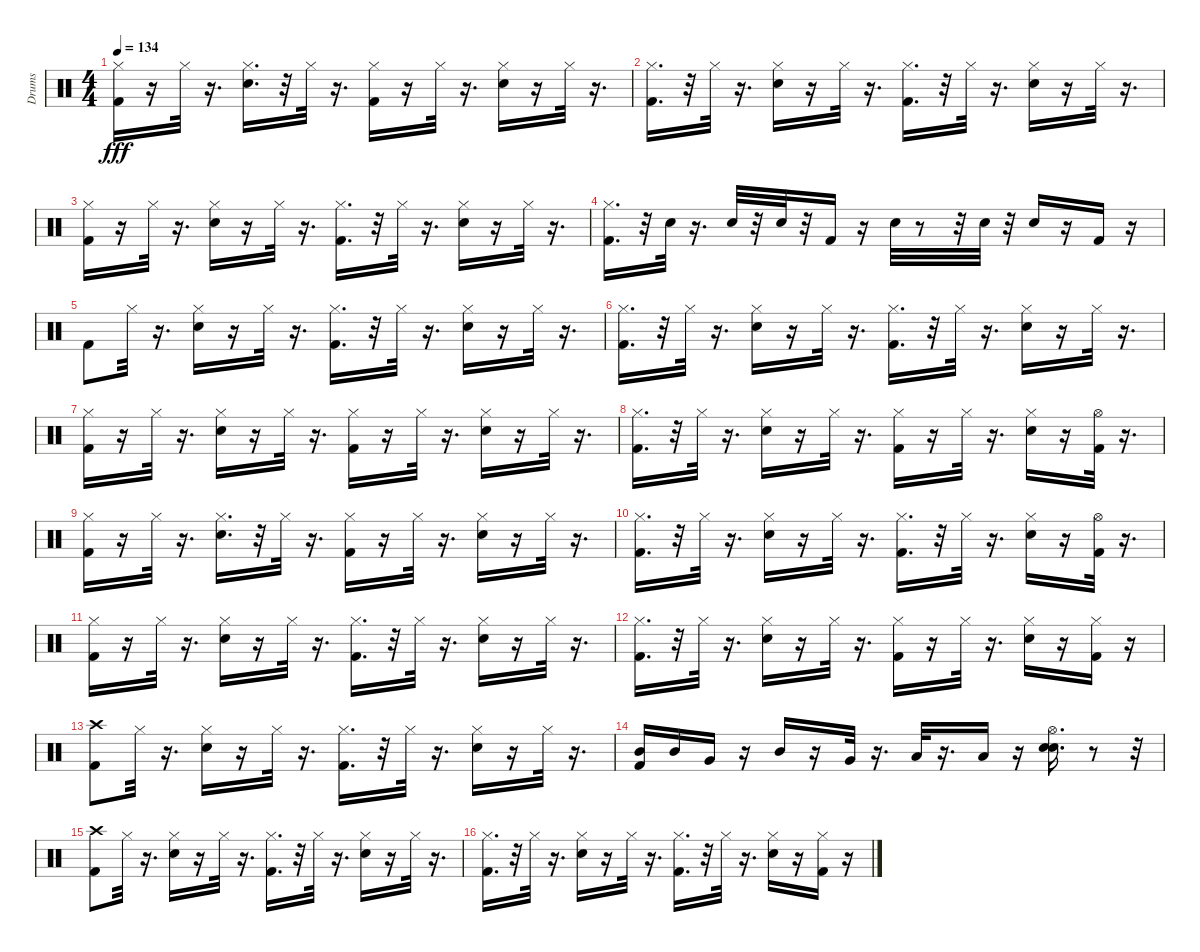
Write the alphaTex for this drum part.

\track ("Drums" "Drums") {instrument percussion}
\staff {score}
\articulation defaults
\ts (4 4)
\tempo 134
\clef neutral
\ks c
("Kick (hit) 2" "Hi-Hat (closed)").16{dy fff} r.16 "Hi-Hat (closed)".32 r.16{d} ("Snare (hit) 2" "Hi-Hat (closed)").16{d} r.32 "Hi-Hat (closed)".32 r.16{d} ("Kick (hit) 2" "Hi-Hat (closed)").16 r.16 "Hi-Hat (closed)".32 r.16{d} ("Snare (hit) 2" "Hi-Hat (closed)").16 r.16 "Hi-Hat (closed)".32 r.16{d} |
("Kick (hit) 2" "Hi-Hat (closed)").16{d} r.32 "Hi-Hat (closed)".32 r.16{d} ("Snare (hit) 2" "Hi-Hat (closed)").16 r.16 "Hi-Hat (closed)".32 r.16{d} ("Kick (hit) 2" "Hi-Hat (closed)").16{d} r.32 "Hi-Hat (closed)".32 r.16{d} ("Snare (hit) 2" "Hi-Hat (closed)").16 r.16 "Hi-Hat (closed)".32 r.16{d} |
("Kick (hit) 2" "Hi-Hat (closed)").16 r.16 "Hi-Hat (closed)".32 r.16{d} ("Snare (hit) 2" "Hi-Hat (closed)").16 r.16 "Hi-Hat (closed)".32 r.16{d} ("Kick (hit) 2" "Hi-Hat (closed)").16{d} r.32 "Hi-Hat (closed)".32 r.16{d} ("Snare (hit) 2" "Hi-Hat (closed)").16 r.16 "Hi-Hat (closed)".32 r.16{d} |
("Kick (hit) 2" "Hi-Hat (closed)").16{d} r.32 "Snare (hit) 2".32 r.16{d} "Snare (hit) 2".32 r.32 "Snare (hit) 2".32 r.32 "Kick (hit) 2".16 r.16 "Snare (hit) 2".32 r.8 r.32 "Snare (hit) 2".32 r.32 "Snare (hit) 2".16 r.16 "Kick (hit) 2".16 r.16 |
"Kick (hit) 2".8 "Hi-Hat (closed)".32 r.16{d} ("Snare (hit) 2" "Hi-Hat (closed)").16 r.16 "Hi-Hat (closed)".32 r.16{d} ("Kick (hit) 2" "Hi-Hat (closed)").16{d} r.32 "Hi-Hat (closed)".32 r.16{d} ("Snare (hit) 2" "Hi-Hat (closed)").16 r.16 "Hi-Hat (closed)".32 r.16{d} |
("Kick (hit) 2" "Hi-Hat (closed)").16{d} r.32 "Hi-Hat (closed)".32 r.16{d} ("Snare (hit) 2" "Hi-Hat (closed)").16 r.16 "Hi-Hat (closed)".32 r.16{d} ("Kick (hit) 2" "Hi-Hat (closed)").16{d} r.32 "Hi-Hat (closed)".32 r.16{d} ("Snare (hit) 2" "Hi-Hat (closed)").16 r.16 "Hi-Hat (closed)".32 r.16{d} |
("Kick (hit) 2" "Hi-Hat (closed)").16 r.16 "Hi-Hat (closed)".32 r.16{d} ("Snare (hit) 2" "Hi-Hat (closed)").16 r.16 "Hi-Hat (closed)".32 r.16{d} ("Kick (hit) 2" "Hi-Hat (closed)").16 r.16 "Hi-Hat (closed)".32 r.16{d} ("Snare (hit) 2" "Hi-Hat (closed)").16 r.16 "Hi-Hat (closed)".32 r.16{d} |
("Kick (hit) 2" "Hi-Hat (closed)").16{d} r.32 "Hi-Hat (closed)".32 r.16{d} ("Snare (hit) 2" "Hi-Hat (closed)").16 r.16 "Hi-Hat (closed)".32 r.16{d} ("Kick (hit) 2" "Hi-Hat (closed)").16 r.16 "Hi-Hat (closed)".32 r.16{d} ("Snare (hit) 2" "Hi-Hat (closed)").16 r.16 ("Kick (hit) 2" "Hi-Hat (open)").32 r.16{d} |
("Kick (hit) 2" "Hi-Hat (closed)").16 r.16 "Hi-Hat (closed)".32 r.16{d} ("Snare (hit) 2" "Hi-Hat (closed)").16{d} r.32 "Hi-Hat (closed)".32 r.16{d} ("Kick (hit) 2" "Hi-Hat (closed)").16 r.16 "Hi-Hat (closed)".32 r.16{d} ("Snare (hit) 2" "Hi-Hat (closed)").16 r.16 "Hi-Hat (closed)".32 r.16{d} |
("Kick (hit) 2" "Hi-Hat (closed)").16{d} r.32 "Hi-Hat (closed)".32 r.16{d} ("Snare (hit) 2" "Hi-Hat (closed)").16 r.16 "Hi-Hat (closed)".32 r.16{d} ("Kick (hit) 2" "Hi-Hat (closed)").16{d} r.32 "Hi-Hat (closed)".32 r.16{d} ("Snare (hit) 2" "Hi-Hat (closed)").16 r.16 ("Kick (hit) 2" "Hi-Hat (open)").32 r.16{d} |
("Kick (hit) 2" "Hi-Hat (closed)").16 r.16 "Hi-Hat (closed)".32 r.16{d} ("Snare (hit) 2" "Hi-Hat (closed)").16 r.16 "Hi-Hat (closed)".32 r.16{d} ("Kick (hit) 2" "Hi-Hat (closed)").16{d} r.32 "Hi-Hat (closed)".32 r.16{d} ("Snare (hit) 2" "Hi-Hat (closed)").16 r.16 "Hi-Hat (closed)".32 r.16{d} |
("Kick (hit) 2" "Hi-Hat (closed)").16{d} r.32 "Hi-Hat (closed)".32 r.16{d} ("Snare (hit) 2" "Hi-Hat (closed)").16 r.16 "Hi-Hat (closed)".32 r.16{d} ("Kick (hit) 2" "Hi-Hat (closed)").16 r.16 "Hi-Hat (closed)".32 r.16{d} ("Snare (hit) 2" "Hi-Hat (closed)").16 r.16 ("Kick (hit) 2" "Hi-Hat (closed)").16 r.16 |
("Kick (hit) 2" "Crash high (hit)").8 "Hi-Hat (closed)".32 r.16{d} ("Snare (hit) 2" "Hi-Hat (closed)").16 r.16 "Hi-Hat (closed)".32 r.16{d} ("Kick (hit) 2" "Hi-Hat (closed)").16{d} r.32 "Hi-Hat (closed)".32 r.16{d} ("Snare (hit) 2" "Hi-Hat (closed)").16 r.16 "Hi-Hat (closed)".32 r.16{d} |
("Kick (hit) 2" "Mid Tom (hit)").16 "Mid Tom (hit)".16 "Very Low Tom (hit)".16 r.16 "Mid Tom (hit)".16 r.16 "Very Low Tom (hit)".32 r.16{d} "Low Floor Tom (hit)".32 r.16{d} "Low Floor Tom (hit)".16 r.16 ("Snare (hit) 2" "Snare (hit) 2" "Hi-Hat (open)").16{d} r.8 r.32 |
("Kick (hit) 2" "Crash high (hit)").8 "Hi-Hat (closed)".32 r.16{d} ("Snare (hit) 2" "Hi-Hat (closed)").16 r.16 "Hi-Hat (closed)".32 r.16{d} ("Kick (hit) 2" "Hi-Hat (closed)").16{d} r.32 "Hi-Hat (closed)".32 r.16{d} ("Snare (hit) 2" "Hi-Hat (closed)").16 r.16 "Hi-Hat (closed)".32 r.16{d} |
("Kick (hit) 2" "Hi-Hat (closed)").16{d} r.32 "Hi-Hat (closed)".32 r.16{d} ("Snare (hit) 2" "Hi-Hat (closed)").16 r.16 "Hi-Hat (closed)".32 r.16{d} ("Kick (hit) 2" "Hi-Hat (closed)").16{d} r.32 "Hi-Hat (closed)".32 r.16{d} ("Snare (hit) 2" "Hi-Hat (closed)").16 r.16 ("Kick (hit) 2" "Hi-Hat (closed)").16 r.16
